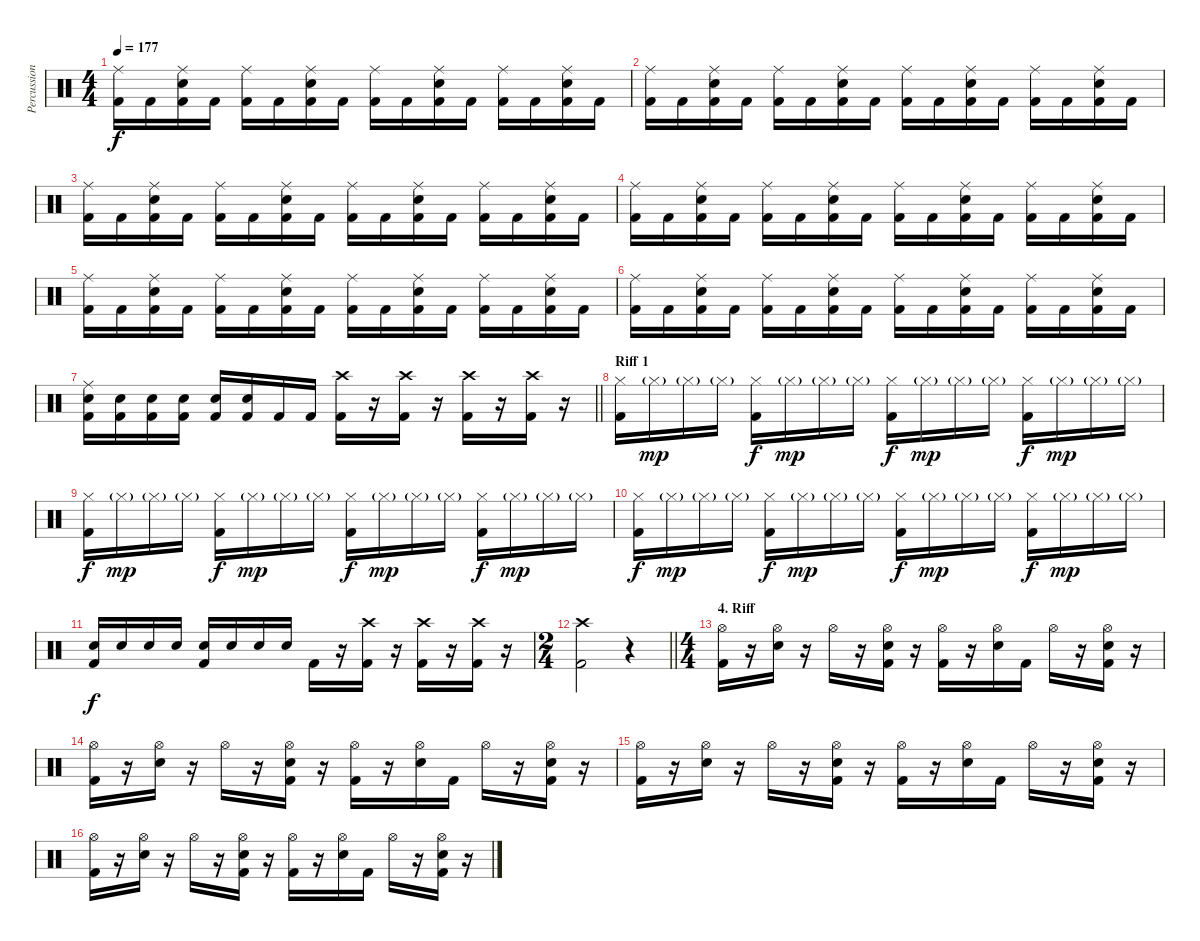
\track ("Percussion" "Percussion") {instrument percussion}
\staff {score}
\articulation defaults
\ts (4 4)
\tempo 177
\clef neutral
\ks c
("Ride (middle)" "Kick (hit) 2").16{dy f} "Kick (hit) 2".16 ("Ride (middle)" "Snare (hit) 2" "Kick (hit) 2").16 "Kick (hit) 2".16 ("Ride (middle)" "Kick (hit) 2").16 "Kick (hit) 2".16 ("Ride (middle)" "Snare (hit) 2" "Kick (hit) 2").16 "Kick (hit) 2".16 ("Ride (middle)" "Kick (hit) 2").16 "Kick (hit) 2".16 ("Ride (middle)" "Snare (hit) 2" "Kick (hit) 2").16 "Kick (hit) 2".16 ("Ride (middle)" "Kick (hit) 2").16 "Kick (hit) 2".16 ("Ride (middle)" "Snare (hit) 2" "Kick (hit) 2").16 "Kick (hit) 2".16 |
("Ride (middle)" "Kick (hit) 2").16 "Kick (hit) 2".16 ("Ride (middle)" "Snare (hit) 2" "Kick (hit) 2").16 "Kick (hit) 2".16 ("Ride (middle)" "Kick (hit) 2").16 "Kick (hit) 2".16 ("Ride (middle)" "Snare (hit) 2" "Kick (hit) 2").16 "Kick (hit) 2".16 ("Ride (middle)" "Kick (hit) 2").16 "Kick (hit) 2".16 ("Ride (middle)" "Snare (hit) 2" "Kick (hit) 2").16 "Kick (hit) 2".16 ("Ride (middle)" "Kick (hit) 2").16 "Kick (hit) 2".16 ("Ride (middle)" "Snare (hit) 2" "Kick (hit) 2").16 "Kick (hit) 2".16 |
("Ride (middle)" "Kick (hit) 2").16 "Kick (hit) 2".16 ("Ride (middle)" "Snare (hit) 2" "Kick (hit) 2").16 "Kick (hit) 2".16 ("Ride (middle)" "Kick (hit) 2").16 "Kick (hit) 2".16 ("Ride (middle)" "Snare (hit) 2" "Kick (hit) 2").16 "Kick (hit) 2".16 ("Ride (middle)" "Kick (hit) 2").16 "Kick (hit) 2".16 ("Ride (middle)" "Snare (hit) 2" "Kick (hit) 2").16 "Kick (hit) 2".16 ("Ride (middle)" "Kick (hit) 2").16 "Kick (hit) 2".16 ("Ride (middle)" "Snare (hit) 2" "Kick (hit) 2").16 "Kick (hit) 2".16 |
("Ride (middle)" "Kick (hit) 2").16 "Kick (hit) 2".16 ("Ride (middle)" "Snare (hit) 2" "Kick (hit) 2").16 "Kick (hit) 2".16 ("Ride (middle)" "Kick (hit) 2").16 "Kick (hit) 2".16 ("Ride (middle)" "Snare (hit) 2" "Kick (hit) 2").16 "Kick (hit) 2".16 ("Ride (middle)" "Kick (hit) 2").16 "Kick (hit) 2".16 ("Ride (middle)" "Snare (hit) 2" "Kick (hit) 2").16 "Kick (hit) 2".16 ("Ride (middle)" "Kick (hit) 2").16 "Kick (hit) 2".16 ("Ride (middle)" "Snare (hit) 2" "Kick (hit) 2").16 "Kick (hit) 2".16 |
("Ride (middle)" "Kick (hit) 2").16 "Kick (hit) 2".16 ("Ride (middle)" "Snare (hit) 2" "Kick (hit) 2").16 "Kick (hit) 2".16 ("Ride (middle)" "Kick (hit) 2").16 "Kick (hit) 2".16 ("Ride (middle)" "Snare (hit) 2" "Kick (hit) 2").16 "Kick (hit) 2".16 ("Ride (middle)" "Kick (hit) 2").16 "Kick (hit) 2".16 ("Ride (middle)" "Snare (hit) 2" "Kick (hit) 2").16 "Kick (hit) 2".16 ("Ride (middle)" "Kick (hit) 2").16 "Kick (hit) 2".16 ("Ride (middle)" "Snare (hit) 2" "Kick (hit) 2").16 "Kick (hit) 2".16 |
("Ride (middle)" "Kick (hit) 2").16 "Kick (hit) 2".16 ("Ride (middle)" "Snare (hit) 2" "Kick (hit) 2").16 "Kick (hit) 2".16 ("Ride (middle)" "Kick (hit) 2").16 "Kick (hit) 2".16 ("Ride (middle)" "Snare (hit) 2" "Kick (hit) 2").16 "Kick (hit) 2".16 ("Ride (middle)" "Kick (hit) 2").16 "Kick (hit) 2".16 ("Ride (middle)" "Snare (hit) 2" "Kick (hit) 2").16 "Kick (hit) 2".16 ("Ride (middle)" "Kick (hit) 2").16 "Kick (hit) 2".16 ("Ride (middle)" "Snare (hit) 2" "Kick (hit) 2").16 "Kick (hit) 2".16 |
\barLineRight lightlight
("Ride (middle)" "Snare (hit) 2" "Kick (hit) 2").16 ("Snare (hit) 2" "Kick (hit) 2").16 ("Snare (hit) 2" "Kick (hit) 2").16 ("Snare (hit) 2" "Kick (hit) 2").16 ("Snare (hit) 2" "Kick (hit) 2").16 ("Snare (hit) 2" "Kick (hit) 2").16 "Kick (hit) 2".16 "Kick (hit) 2".16 ("Crash high (hit)" "Kick (hit) 2").16 r.16 ("Crash high (hit)" "Kick (hit) 2").16 r.16 ("Crash high (hit)" "Kick (hit) 2").16 r.16 ("Crash high (hit)" "Kick (hit) 2").16 r.16 |
\section ("" "Riff 1")
("Hi-Hat (closed)" "Kick (hit) 2").16 "Hi-Hat (closed)"{g}.16{dy mp} "Hi-Hat (closed)"{g}.16 "Hi-Hat (closed)"{g}.16 ("Hi-Hat (closed)" "Kick (hit) 2").16{dy f} "Hi-Hat (closed)"{g}.16{dy mp} "Hi-Hat (closed)"{g}.16 "Hi-Hat (closed)"{g}.16 ("Hi-Hat (closed)" "Kick (hit) 2").16{dy f} "Hi-Hat (closed)"{g}.16{dy mp} "Hi-Hat (closed)"{g}.16 "Hi-Hat (closed)"{g}.16 ("Hi-Hat (closed)" "Kick (hit) 2").16{dy f} "Hi-Hat (closed)"{g}.16{dy mp} "Hi-Hat (closed)"{g}.16 "Hi-Hat (closed)"{g}.16 |
("Hi-Hat (closed)" "Kick (hit) 2").16{dy f} "Hi-Hat (closed)"{g}.16{dy mp} "Hi-Hat (closed)"{g}.16 "Hi-Hat (closed)"{g}.16 ("Hi-Hat (closed)" "Kick (hit) 2").16{dy f} "Hi-Hat (closed)"{g}.16{dy mp} "Hi-Hat (closed)"{g}.16 "Hi-Hat (closed)"{g}.16 ("Hi-Hat (closed)" "Kick (hit) 2").16{dy f} "Hi-Hat (closed)"{g}.16{dy mp} "Hi-Hat (closed)"{g}.16 "Hi-Hat (closed)"{g}.16 ("Hi-Hat (closed)" "Kick (hit) 2").16{dy f} "Hi-Hat (closed)"{g}.16{dy mp} "Hi-Hat (closed)"{g}.16 "Hi-Hat (closed)"{g}.16 |
("Hi-Hat (closed)" "Kick (hit) 2").16{dy f} "Hi-Hat (closed)"{g}.16{dy mp} "Hi-Hat (closed)"{g}.16 "Hi-Hat (closed)"{g}.16 ("Hi-Hat (closed)" "Kick (hit) 2").16{dy f} "Hi-Hat (closed)"{g}.16{dy mp} "Hi-Hat (closed)"{g}.16 "Hi-Hat (closed)"{g}.16 ("Hi-Hat (closed)" "Kick (hit) 2").16{dy f} "Hi-Hat (closed)"{g}.16{dy mp} "Hi-Hat (closed)"{g}.16 "Hi-Hat (closed)"{g}.16 ("Hi-Hat (closed)" "Kick (hit) 2").16{dy f} "Hi-Hat (closed)"{g}.16{dy mp} "Hi-Hat (closed)"{g}.16 "Hi-Hat (closed)"{g}.16 |
("Kick (hit) 2" "Snare (hit) 2").16{dy f} "Snare (hit) 2".16 "Snare (hit) 2".16 "Snare (hit) 2".16 ("Kick (hit) 2" "Snare (hit) 2").16 "Snare (hit) 2".16 "Snare (hit) 2".16 "Snare (hit) 2".16 "Kick (hit) 2".16 r.16 ("Crash high (hit)" "Kick (hit) 2").16 r.16 ("Crash high (hit)" "Kick (hit) 2").16 r.16 ("Crash high (hit)" "Kick (hit) 2").16 r.16 |
\ts (2 4)
\barLineRight lightlight
("Crash high (hit)" "Kick (hit) 2").2 r.4 |
\ts (4 4)
\section ("" "4. Riff")
("Hi-Hat (open)" "Kick (hit) 2").16 r.16 ("Hi-Hat (open)" "Snare (hit) 2").16 r.16 "Hi-Hat (open)".16 r.16 ("Hi-Hat (open)" "Snare (hit) 2" "Kick (hit) 2").16 r.16 ("Hi-Hat (open)" "Kick (hit) 2").16 r.16 ("Hi-Hat (open)" "Snare (hit) 2").16 "Kick (hit) 2".16 "Hi-Hat (open)".16 r.16 ("Hi-Hat (open)" "Snare (hit) 2" "Kick (hit) 2").16 r.16 |
("Hi-Hat (open)" "Kick (hit) 2").16 r.16 ("Hi-Hat (open)" "Snare (hit) 2").16 r.16 "Hi-Hat (open)".16 r.16 ("Hi-Hat (open)" "Snare (hit) 2" "Kick (hit) 2").16 r.16 ("Hi-Hat (open)" "Kick (hit) 2").16 r.16 ("Hi-Hat (open)" "Snare (hit) 2").16 "Kick (hit) 2".16 "Hi-Hat (open)".16 r.16 ("Hi-Hat (open)" "Snare (hit) 2" "Kick (hit) 2").16 r.16 |
("Hi-Hat (open)" "Kick (hit) 2").16 r.16 ("Hi-Hat (open)" "Snare (hit) 2").16 r.16 "Hi-Hat (open)".16 r.16 ("Hi-Hat (open)" "Snare (hit) 2" "Kick (hit) 2").16 r.16 ("Hi-Hat (open)" "Kick (hit) 2").16 r.16 ("Hi-Hat (open)" "Snare (hit) 2").16 "Kick (hit) 2".16 "Hi-Hat (open)".16 r.16 ("Hi-Hat (open)" "Snare (hit) 2" "Kick (hit) 2").16 r.16 |
("Hi-Hat (open)" "Kick (hit) 2").16 r.16 ("Hi-Hat (open)" "Snare (hit) 2").16 r.16 "Hi-Hat (open)".16 r.16 ("Hi-Hat (open)" "Snare (hit) 2" "Kick (hit) 2").16 r.16 ("Hi-Hat (open)" "Kick (hit) 2").16 r.16 ("Hi-Hat (open)" "Snare (hit) 2").16 "Kick (hit) 2".16 "Hi-Hat (open)".16 r.16 ("Hi-Hat (open)" "Snare (hit) 2" "Kick (hit) 2").16 r.16
